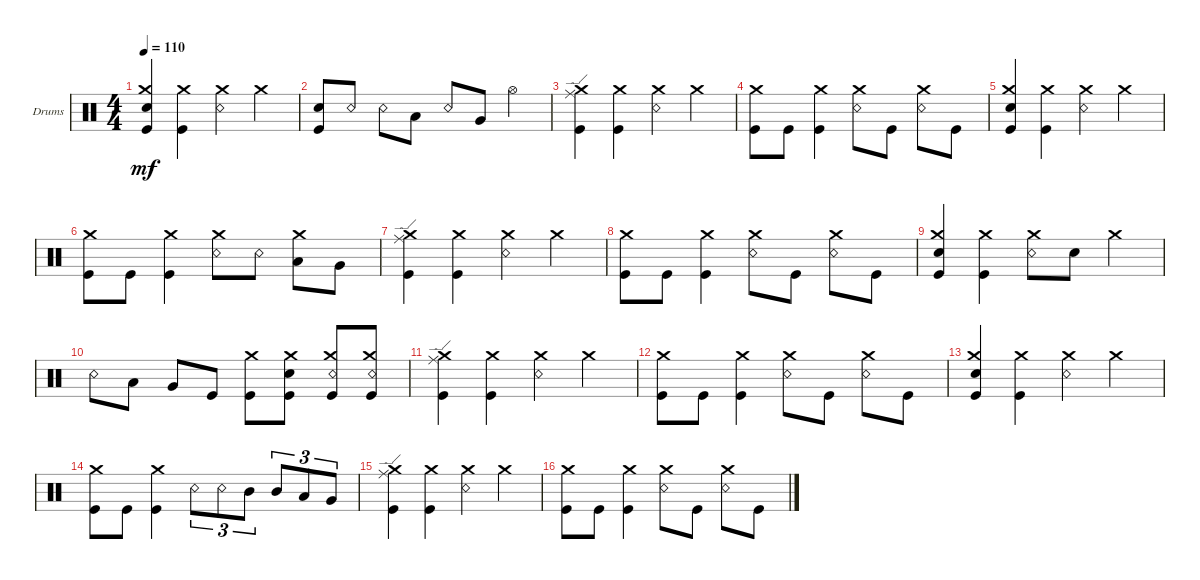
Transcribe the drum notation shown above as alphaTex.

\defaultSystemsLayout 4
\bracketExtendMode groupsimilarinstruments
\firstSystemTrackNameOrientation horizontal
\otherSystemsTrackNameOrientation horizontal
\track ("Drumkit" "Drums") {instrument percussion}
\staff {score}
\articulation defaults
\ts (4 4)
\tempo 110
\clef neutral
\ks c
("Kick (hit)" "Crash medium (hit)" "Snare (hit) 2").4{dy mf} ("Kick (hit)" "Crash medium (hit)").4 ("Snare (rim shot)" "Crash medium (hit)").4 "Crash medium (hit)".4 |
("Kick (hit)" "Snare (hit) 2").8 "Snare (rim shot)".8 "Snare (rim shot)".8 "Low Tom (hit)".8 "Snare (rim shot)".8 "Very Low Tom (hit)".8 "Hi-Hat (open)".4 |
("Kick (hit)" "Ride (edge)" "Crash medium (hit)").4 ("Kick (hit)" "Crash medium (hit)").4 ("Snare (rim shot)" "Crash medium (hit)").4 "Crash medium (hit)".4 |
("Kick (hit)" "Crash medium (hit)").8 "Kick (hit)".8 ("Kick (hit)" "Crash medium (hit)").4 ("Crash medium (hit)" "Snare (rim shot)").8 "Kick (hit)".8 ("Crash medium (hit)" "Snare (rim shot)").8 "Kick (hit)".8 |
("Kick (hit)" "Crash medium (hit)" "Snare (hit) 2").4 ("Kick (hit)" "Crash medium (hit)").4 ("Snare (rim shot)" "Crash medium (hit)").4 "Crash medium (hit)".4 |
("Kick (hit)" "Crash medium (hit)").8 "Kick (hit)".8 ("Kick (hit)" "Crash medium (hit)").4 ("Snare (rim shot)" "Crash medium (hit)").8 "Snare (rim shot)".8 ("Low Tom (hit)" "Crash medium (hit)").8 "Very Low Tom (hit)".8 |
("Kick (hit)" "Ride (edge)" "Crash medium (hit)").4 ("Kick (hit)" "Crash medium (hit)").4 ("Snare (rim shot)" "Crash medium (hit)").4 "Crash medium (hit)".4 |
("Kick (hit)" "Crash medium (hit)").8 "Kick (hit)".8 ("Kick (hit)" "Crash medium (hit)").4 ("Crash medium (hit)" "Snare (rim shot)").8 "Kick (hit)".8 ("Crash medium (hit)" "Snare (rim shot)").8 "Kick (hit)".8 |
("Kick (hit)" "Crash medium (hit)" "Snare (hit) 2").4 ("Kick (hit)" "Crash medium (hit)").4 ("Snare (rim shot)" "Crash medium (hit)").8 "Snare (hit) 2".8 "Crash medium (hit)".4 |
"Snare (rim shot)".8 "Low Tom (hit)".8 "Very Low Tom (hit)".8 "Kick (hit)".8 ("Crash medium (hit)" "Kick (hit)").8 ("Crash medium (hit)" "Snare (hit) 2" "Kick (hit)").8 ("Crash medium (hit)" "Snare (rim shot)" "Kick (hit)").8 ("Crash medium (hit)" "Snare (rim shot)" "Kick (hit)").8 |
("Kick (hit)" "Ride (edge)" "Crash medium (hit)").4 ("Kick (hit)" "Crash medium (hit)").4 ("Snare (rim shot)" "Crash medium (hit)").4 "Crash medium (hit)".4 |
("Kick (hit)" "Crash medium (hit)").8 "Kick (hit)".8 ("Kick (hit)" "Crash medium (hit)").4 ("Crash medium (hit)" "Snare (rim shot)").8 "Kick (hit)".8 ("Crash medium (hit)" "Snare (rim shot)").8 "Kick (hit)".8 |
("Kick (hit)" "Crash medium (hit)" "Snare (hit) 2").4 ("Kick (hit)" "Crash medium (hit)").4 ("Snare (rim shot)" "Crash medium (hit)").4 "Crash medium (hit)".4 |
("Kick (hit)" "Crash medium (hit)").8 "Kick (hit)".8 ("Kick (hit)" "Crash medium (hit)").4 "Snare (rim shot)".8{tu (3 2)} "Snare (rim shot)".8{tu (3 2)} "Mid Tom (hit)".8{tu (3 2)} "Mid Tom (hit)".8{tu (3 2)} "Low Tom (hit)".8{tu (3 2)} "Very Low Tom (hit)".8{tu (3 2)} |
("Kick (hit)" "Ride (edge)" "Crash medium (hit)").4 ("Kick (hit)" "Crash medium (hit)").4 ("Snare (rim shot)" "Crash medium (hit)").4 "Crash medium (hit)".4 |
("Kick (hit)" "Crash medium (hit)").8 "Kick (hit)".8 ("Kick (hit)" "Crash medium (hit)").4 ("Crash medium (hit)" "Snare (rim shot)").8 "Kick (hit)".8 ("Crash medium (hit)" "Snare (rim shot)").8 "Kick (hit)".8
